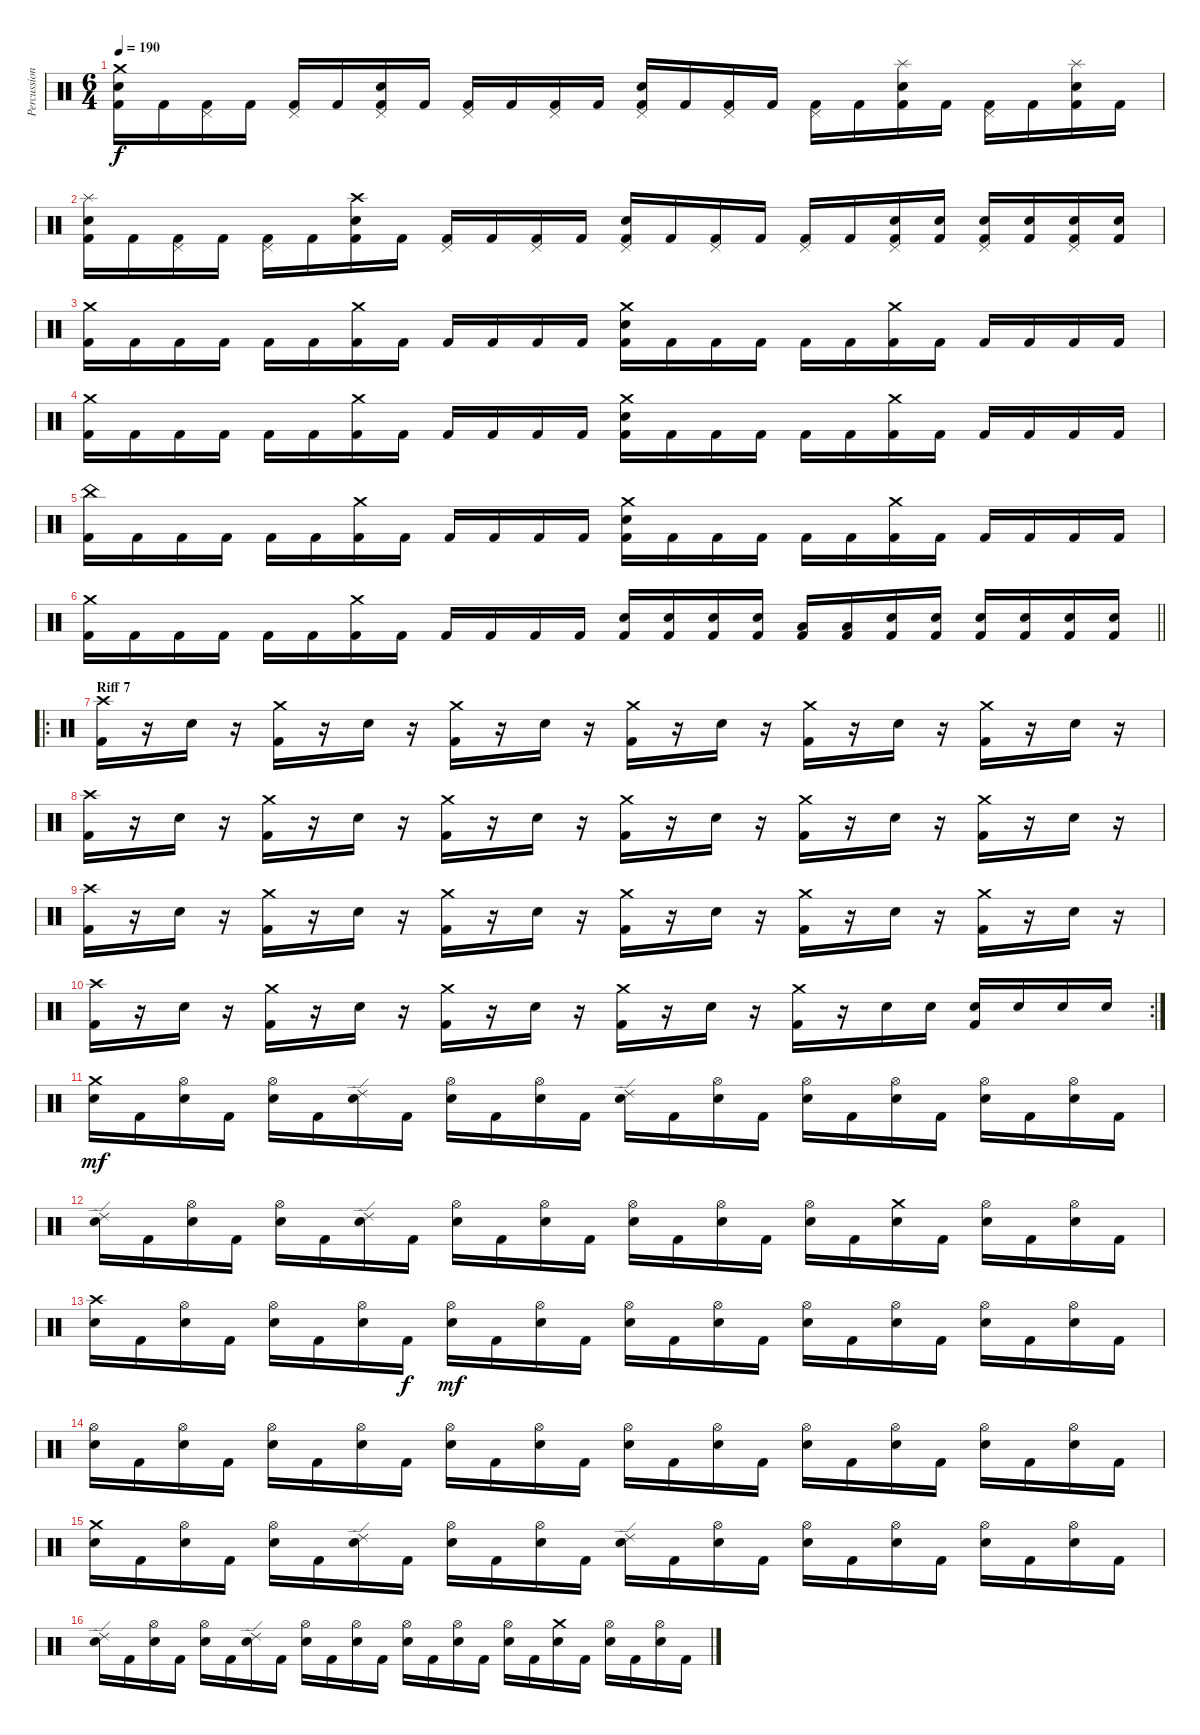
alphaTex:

\track ("Percussions" "Percussion") {instrument percussion}
\staff {score}
\articulation defaults
\ts (6 4)
\tempo 190
\clef neutral
\ks c
("Crash medium (hit)" "Electric Snare (hit)" "Kick (hit) 2").16{dy f} "Kick (hit) 2".16 ("Pedal Hi-Hat (hit)" "Kick (hit) 2").16 "Kick (hit) 2".16 ("Pedal Hi-Hat (hit)" "Kick (hit) 2").16 "Kick (hit) 2".16 ("Pedal Hi-Hat (hit)" "Electric Snare (hit)" "Kick (hit) 2").16 "Kick (hit) 2".16 ("Pedal Hi-Hat (hit)" "Kick (hit) 2").16 "Kick (hit) 2".16 ("Pedal Hi-Hat (hit)" "Kick (hit) 2").16 "Kick (hit) 2".16 ("Pedal Hi-Hat (hit)" "Electric Snare (hit)" "Kick (hit) 2").16 "Kick (hit) 2".16 ("Pedal Hi-Hat (hit)" "Kick (hit) 2").16 "Kick (hit) 2".16 ("Pedal Hi-Hat (hit)" "Kick (hit) 2").16 "Kick (hit) 2".16 ("Splash (hit)" "Electric Snare (hit)" "Kick (hit) 2").16 "Kick (hit) 2".16 ("Pedal Hi-Hat (hit)" "Kick (hit) 2").16 "Kick (hit) 2".16 ("Splash (hit)" "Electric Snare (hit)" "Kick (hit) 2").16 "Kick (hit) 2".16 |
("Splash (hit)" "Electric Snare (hit)" "Kick (hit) 2").16 "Kick (hit) 2".16 ("Pedal Hi-Hat (hit)" "Kick (hit) 2").16 "Kick (hit) 2".16 ("Pedal Hi-Hat (hit)" "Kick (hit) 2").16 "Kick (hit) 2".16 ("Crash high (hit)" "Electric Snare (hit)" "Kick (hit) 2").16 "Kick (hit) 2".16 ("Pedal Hi-Hat (hit)" "Kick (hit) 2").16 "Kick (hit) 2".16 ("Pedal Hi-Hat (hit)" "Kick (hit) 2").16 "Kick (hit) 2".16 ("Pedal Hi-Hat (hit)" "Electric Snare (hit)" "Kick (hit) 2").16 "Kick (hit) 2".16 ("Pedal Hi-Hat (hit)" "Kick (hit) 2").16 "Kick (hit) 2".16 ("Pedal Hi-Hat (hit)" "Kick (hit) 2").16 "Kick (hit) 2".16 ("Pedal Hi-Hat (hit)" "Electric Snare (hit)" "Kick (hit) 2").16 ("Electric Snare (hit)" "Kick (hit) 2").16 ("Pedal Hi-Hat (hit)" "Electric Snare (hit)" "Kick (hit) 2").16 ("Electric Snare (hit)" "Kick (hit) 2").16 ("Pedal Hi-Hat (hit)" "Electric Snare (hit)" "Kick (hit) 2").16 ("Electric Snare (hit)" "Kick (hit) 2").16 |
("Crash medium (hit)" "Kick (hit) 2").16 "Kick (hit) 2".16 "Kick (hit) 2".16 "Kick (hit) 2".16 "Kick (hit) 2".16 "Kick (hit) 2".16 ("Crash medium (hit)" "Kick (hit) 2").16 "Kick (hit) 2".16 "Kick (hit) 2".16 "Kick (hit) 2".16 "Kick (hit) 2".16 "Kick (hit) 2".16 ("Crash medium (hit)" "Electric Snare (hit)" "Kick (hit) 2").16 "Kick (hit) 2".16 "Kick (hit) 2".16 "Kick (hit) 2".16 "Kick (hit) 2".16 "Kick (hit) 2".16 ("Crash medium (hit)" "Kick (hit) 2").16 "Kick (hit) 2".16 "Kick (hit) 2".16 "Kick (hit) 2".16 "Kick (hit) 2".16 "Kick (hit) 2".16 |
("Crash medium (hit)" "Kick (hit) 2").16 "Kick (hit) 2".16 "Kick (hit) 2".16 "Kick (hit) 2".16 "Kick (hit) 2".16 "Kick (hit) 2".16 ("Crash medium (hit)" "Kick (hit) 2").16 "Kick (hit) 2".16 "Kick (hit) 2".16 "Kick (hit) 2".16 "Kick (hit) 2".16 "Kick (hit) 2".16 ("Crash medium (hit)" "Electric Snare (hit)" "Kick (hit) 2").16 "Kick (hit) 2".16 "Kick (hit) 2".16 "Kick (hit) 2".16 "Kick (hit) 2".16 "Kick (hit) 2".16 ("Crash medium (hit)" "Kick (hit) 2").16 "Kick (hit) 2".16 "Kick (hit) 2".16 "Kick (hit) 2".16 "Kick (hit) 2".16 "Kick (hit) 2".16 |
("China (hit)" "Kick (hit) 2").16 "Kick (hit) 2".16 "Kick (hit) 2".16 "Kick (hit) 2".16 "Kick (hit) 2".16 "Kick (hit) 2".16 ("Crash medium (hit)" "Kick (hit) 2").16 "Kick (hit) 2".16 "Kick (hit) 2".16 "Kick (hit) 2".16 "Kick (hit) 2".16 "Kick (hit) 2".16 ("Crash medium (hit)" "Electric Snare (hit)" "Kick (hit) 2").16 "Kick (hit) 2".16 "Kick (hit) 2".16 "Kick (hit) 2".16 "Kick (hit) 2".16 "Kick (hit) 2".16 ("Crash medium (hit)" "Kick (hit) 2").16 "Kick (hit) 2".16 "Kick (hit) 2".16 "Kick (hit) 2".16 "Kick (hit) 2".16 "Kick (hit) 2".16 |
\barLineRight lightlight
("Crash medium (hit)" "Kick (hit) 2").16 "Kick (hit) 2".16 "Kick (hit) 2".16 "Kick (hit) 2".16 "Kick (hit) 2".16 "Kick (hit) 2".16 ("Crash medium (hit)" "Kick (hit) 2").16 "Kick (hit) 2".16 "Kick (hit) 2".16 "Kick (hit) 2".16 "Kick (hit) 2".16 "Kick (hit) 2".16 ("Electric Snare (hit)" "Kick (hit) 2").16 ("Electric Snare (hit)" "Kick (hit) 2").16 ("Electric Snare (hit)" "Kick (hit) 2").16 ("Electric Snare (hit)" "Kick (hit) 2").16 ("Low Tom (hit)" "Kick (hit) 2").16 ("Low Tom (hit)" "Kick (hit) 2").16 ("Electric Snare (hit)" "Kick (hit) 2").16 ("Electric Snare (hit)" "Kick (hit) 2").16 ("Electric Snare (hit)" "Kick (hit) 2").16 ("Electric Snare (hit)" "Kick (hit) 2").16 ("Electric Snare (hit)" "Kick (hit) 2").16 ("Electric Snare (hit)" "Kick (hit) 2").16 |
\ro
\section ("" "Riff 7")
("Crash high (hit)" "Kick (hit) 2").16 r.16 "Electric Snare (hit)".16 r.16 ("Crash medium (hit)" "Kick (hit) 2").16 r.16 "Electric Snare (hit)".16 r.16 ("Crash medium (hit)" "Kick (hit) 2").16 r.16 "Electric Snare (hit)".16 r.16 ("Crash medium (hit)" "Kick (hit) 2").16 r.16 "Electric Snare (hit)".16 r.16 ("Crash medium (hit)" "Kick (hit) 2").16 r.16 "Electric Snare (hit)".16 r.16 ("Crash medium (hit)" "Kick (hit) 2").16 r.16 "Electric Snare (hit)".16 r.16 |
("Crash high (hit)" "Kick (hit) 2").16 r.16 "Electric Snare (hit)".16 r.16 ("Crash medium (hit)" "Kick (hit) 2").16 r.16 "Electric Snare (hit)".16 r.16 ("Crash medium (hit)" "Kick (hit) 2").16 r.16 "Electric Snare (hit)".16 r.16 ("Crash medium (hit)" "Kick (hit) 2").16 r.16 "Electric Snare (hit)".16 r.16 ("Crash medium (hit)" "Kick (hit) 2").16 r.16 "Electric Snare (hit)".16 r.16 ("Crash medium (hit)" "Kick (hit) 2").16 r.16 "Electric Snare (hit)".16 r.16 |
("Crash high (hit)" "Kick (hit) 2").16 r.16 "Electric Snare (hit)".16 r.16 ("Crash medium (hit)" "Kick (hit) 2").16 r.16 "Electric Snare (hit)".16 r.16 ("Crash medium (hit)" "Kick (hit) 2").16 r.16 "Electric Snare (hit)".16 r.16 ("Crash medium (hit)" "Kick (hit) 2").16 r.16 "Electric Snare (hit)".16 r.16 ("Crash medium (hit)" "Kick (hit) 2").16 r.16 "Electric Snare (hit)".16 r.16 ("Crash medium (hit)" "Kick (hit) 2").16 r.16 "Electric Snare (hit)".16 r.16 |
\rc 2
("Crash high (hit)" "Kick (hit) 2").16 r.16 "Electric Snare (hit)".16 r.16 ("Crash medium (hit)" "Kick (hit) 2").16 r.16 "Electric Snare (hit)".16 r.16 ("Crash medium (hit)" "Kick (hit) 2").16 r.16 "Electric Snare (hit)".16 r.16 ("Crash medium (hit)" "Kick (hit) 2").16 r.16 "Electric Snare (hit)".16 r.16 ("Crash medium (hit)" "Kick (hit) 2").16 r.16 "Electric Snare (hit)".16 "Electric Snare (hit)".16 ("Electric Snare (hit)" "Kick (hit) 2").16 "Electric Snare (hit)".16 "Electric Snare (hit)".16 "Electric Snare (hit)".16 |
("Crash medium (hit)" "Electric Snare (hit)").16{dy mf} "Kick (hit) 2".16 ("Hi-Hat (open)" "Electric Snare (hit)").16 "Kick (hit) 2".16 ("Hi-Hat (open)" "Electric Snare (hit)").16 "Kick (hit) 2".16 ("Ride (edge) 2" "Electric Snare (hit)").16 "Kick (hit) 2".16 ("Hi-Hat (open)" "Electric Snare (hit)").16 "Kick (hit) 2".16 ("Hi-Hat (open)" "Electric Snare (hit)").16 "Kick (hit) 2".16 ("Ride (edge) 2" "Electric Snare (hit)").16 "Kick (hit) 2".16 ("Hi-Hat (open)" "Electric Snare (hit)").16 "Kick (hit) 2".16 ("Hi-Hat (open)" "Electric Snare (hit)").16 "Kick (hit) 2".16 ("Hi-Hat (open)" "Electric Snare (hit)").16 "Kick (hit) 2".16 ("Hi-Hat (open)" "Electric Snare (hit)").16 "Kick (hit) 2".16 ("Hi-Hat (open)" "Electric Snare (hit)").16 "Kick (hit) 2".16 |
("Ride (edge) 2" "Electric Snare (hit)").16 "Kick (hit) 2".16 ("Hi-Hat (open)" "Electric Snare (hit)").16 "Kick (hit) 2".16 ("Hi-Hat (open)" "Electric Snare (hit)").16 "Kick (hit) 2".16 ("Ride (edge) 2" "Electric Snare (hit)").16 "Kick (hit) 2".16 ("Hi-Hat (open)" "Electric Snare (hit)").16 "Kick (hit) 2".16 ("Hi-Hat (open)" "Electric Snare (hit)").16 "Kick (hit) 2".16 ("Hi-Hat (open)" "Electric Snare (hit)").16 "Kick (hit) 2".16 ("Hi-Hat (open)" "Electric Snare (hit)").16 "Kick (hit) 2".16 ("Hi-Hat (open)" "Electric Snare (hit)").16 "Kick (hit) 2".16 ("Crash medium (hit)" "Electric Snare (hit)").16 "Kick (hit) 2".16 ("Hi-Hat (open)" "Electric Snare (hit)").16 "Kick (hit) 2".16 ("Hi-Hat (open)" "Electric Snare (hit)").16 "Kick (hit) 2".16 |
("Crash high (hit)" "Electric Snare (hit)").16 "Kick (hit) 2".16 ("Hi-Hat (open)" "Electric Snare (hit)").16 "Kick (hit) 2".16 ("Hi-Hat (open)" "Electric Snare (hit)").16 "Kick (hit) 2".16 ("Hi-Hat (open)" "Electric Snare (hit)").16 "Kick (hit) 2".16{dy f} ("Hi-Hat (open)" "Electric Snare (hit)").16{dy mf} "Kick (hit) 2".16 ("Hi-Hat (open)" "Electric Snare (hit)").16 "Kick (hit) 2".16 ("Hi-Hat (open)" "Electric Snare (hit)").16 "Kick (hit) 2".16 ("Hi-Hat (open)" "Electric Snare (hit)").16 "Kick (hit) 2".16 ("Hi-Hat (open)" "Electric Snare (hit)").16 "Kick (hit) 2".16 ("Hi-Hat (open)" "Electric Snare (hit)").16 "Kick (hit) 2".16 ("Hi-Hat (open)" "Electric Snare (hit)").16 "Kick (hit) 2".16 ("Hi-Hat (open)" "Electric Snare (hit)").16 "Kick (hit) 2".16 |
("Hi-Hat (open)" "Electric Snare (hit)").16 "Kick (hit) 2".16 ("Hi-Hat (open)" "Electric Snare (hit)").16 "Kick (hit) 2".16 ("Hi-Hat (open)" "Electric Snare (hit)").16 "Kick (hit) 2".16 ("Hi-Hat (open)" "Electric Snare (hit)").16 "Kick (hit) 2".16 ("Hi-Hat (open)" "Electric Snare (hit)").16 "Kick (hit) 2".16 ("Hi-Hat (open)" "Electric Snare (hit)").16 "Kick (hit) 2".16 ("Hi-Hat (open)" "Electric Snare (hit)").16 "Kick (hit) 2".16 ("Hi-Hat (open)" "Electric Snare (hit)").16 "Kick (hit) 2".16 ("Hi-Hat (open)" "Electric Snare (hit)").16 "Kick (hit) 2".16 ("Hi-Hat (open)" "Electric Snare (hit)").16 "Kick (hit) 2".16 ("Hi-Hat (open)" "Electric Snare (hit)").16 "Kick (hit) 2".16 ("Hi-Hat (open)" "Electric Snare (hit)").16 "Kick (hit) 2".16 |
("Crash medium (hit)" "Electric Snare (hit)").16 "Kick (hit) 2".16 ("Hi-Hat (open)" "Electric Snare (hit)").16 "Kick (hit) 2".16 ("Hi-Hat (open)" "Electric Snare (hit)").16 "Kick (hit) 2".16 ("Ride (edge) 2" "Electric Snare (hit)").16 "Kick (hit) 2".16 ("Hi-Hat (open)" "Electric Snare (hit)").16 "Kick (hit) 2".16 ("Hi-Hat (open)" "Electric Snare (hit)").16 "Kick (hit) 2".16 ("Ride (edge) 2" "Electric Snare (hit)").16 "Kick (hit) 2".16 ("Hi-Hat (open)" "Electric Snare (hit)").16 "Kick (hit) 2".16 ("Hi-Hat (open)" "Electric Snare (hit)").16 "Kick (hit) 2".16 ("Hi-Hat (open)" "Electric Snare (hit)").16 "Kick (hit) 2".16 ("Hi-Hat (open)" "Electric Snare (hit)").16 "Kick (hit) 2".16 ("Hi-Hat (open)" "Electric Snare (hit)").16 "Kick (hit) 2".16 |
("Ride (edge) 2" "Electric Snare (hit)").16 "Kick (hit) 2".16 ("Hi-Hat (open)" "Electric Snare (hit)").16 "Kick (hit) 2".16 ("Hi-Hat (open)" "Electric Snare (hit)").16 "Kick (hit) 2".16 ("Ride (edge) 2" "Electric Snare (hit)").16 "Kick (hit) 2".16 ("Hi-Hat (open)" "Electric Snare (hit)").16 "Kick (hit) 2".16 ("Hi-Hat (open)" "Electric Snare (hit)").16 "Kick (hit) 2".16 ("Hi-Hat (open)" "Electric Snare (hit)").16 "Kick (hit) 2".16 ("Hi-Hat (open)" "Electric Snare (hit)").16 "Kick (hit) 2".16 ("Hi-Hat (open)" "Electric Snare (hit)").16 "Kick (hit) 2".16 ("Crash medium (hit)" "Electric Snare (hit)").16 "Kick (hit) 2".16 ("Hi-Hat (open)" "Electric Snare (hit)").16 "Kick (hit) 2".16 ("Hi-Hat (open)" "Electric Snare (hit)").16 "Kick (hit) 2".16
